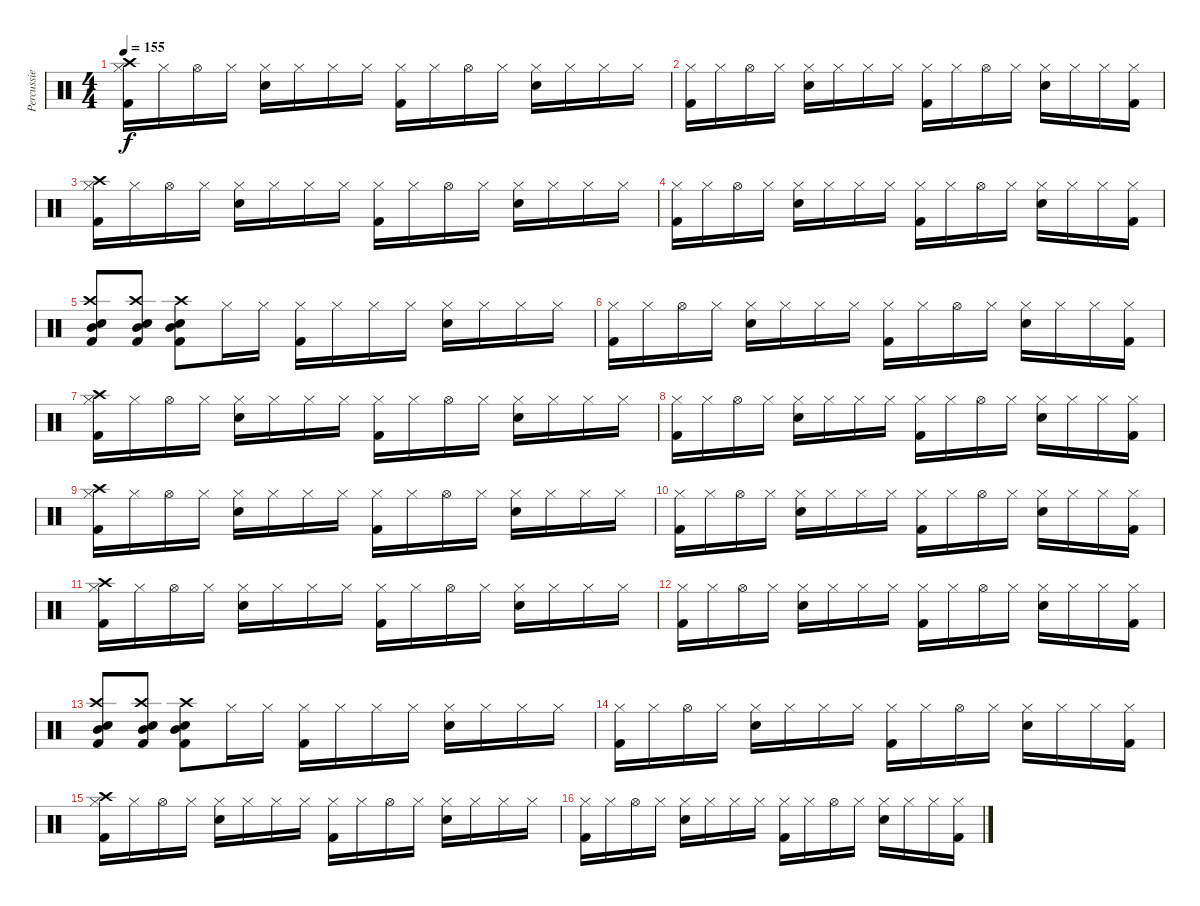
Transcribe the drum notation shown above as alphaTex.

\track ("Percussie" "Percussie") {instrument percussion}
\staff {score}
\articulation defaults
\ts (4 4)
\tempo 155
\clef neutral
\ks c
("Kick (hit) 2" "Hi-Hat (closed)" "Crash high (hit)").16{dy f} "Hi-Hat (closed)".16 "Hi-Hat (open)".16 "Hi-Hat (closed)".16 ("Electric Snare (hit)" "Hi-Hat (closed)").16 "Hi-Hat (closed)".16 "Hi-Hat (closed)".16 "Hi-Hat (closed)".16 ("Kick (hit) 2" "Hi-Hat (closed)").16 "Hi-Hat (closed)".16 "Hi-Hat (open)".16 "Hi-Hat (closed)".16 ("Electric Snare (hit)" "Hi-Hat (closed)").16 "Hi-Hat (closed)".16 "Hi-Hat (closed)".16 "Hi-Hat (closed)".16 |
("Kick (hit) 2" "Hi-Hat (closed)").16 "Hi-Hat (closed)".16 "Hi-Hat (open)".16 "Hi-Hat (closed)".16 ("Electric Snare (hit)" "Hi-Hat (closed)").16 "Hi-Hat (closed)".16 "Hi-Hat (closed)".16 "Hi-Hat (closed)".16 ("Kick (hit) 2" "Hi-Hat (closed)").16 "Hi-Hat (closed)".16 "Hi-Hat (open)".16 "Hi-Hat (closed)".16 ("Electric Snare (hit)" "Hi-Hat (closed)").16 "Hi-Hat (closed)".16 "Hi-Hat (closed)".16 ("Kick (hit) 2" "Hi-Hat (closed)").16 |
("Kick (hit) 2" "Hi-Hat (closed)" "Crash high (hit)").16 "Hi-Hat (closed)".16 "Hi-Hat (open)".16 "Hi-Hat (closed)".16 ("Electric Snare (hit)" "Hi-Hat (closed)").16 "Hi-Hat (closed)".16 "Hi-Hat (closed)".16 "Hi-Hat (closed)".16 ("Kick (hit) 2" "Hi-Hat (closed)").16 "Hi-Hat (closed)".16 "Hi-Hat (open)".16 "Hi-Hat (closed)".16 ("Electric Snare (hit)" "Hi-Hat (closed)").16 "Hi-Hat (closed)".16 "Hi-Hat (closed)".16 "Hi-Hat (closed)".16 |
("Kick (hit) 2" "Hi-Hat (closed)").16 "Hi-Hat (closed)".16 "Hi-Hat (open)".16 "Hi-Hat (closed)".16 ("Electric Snare (hit)" "Hi-Hat (closed)").16 "Hi-Hat (closed)".16 "Hi-Hat (closed)".16 "Hi-Hat (closed)".16 ("Kick (hit) 2" "Hi-Hat (closed)").16 "Hi-Hat (closed)".16 "Hi-Hat (open)".16 "Hi-Hat (closed)".16 ("Electric Snare (hit)" "Hi-Hat (closed)").16 "Hi-Hat (closed)".16 "Hi-Hat (closed)".16 ("Kick (hit) 2" "Hi-Hat (closed)").16 |
("Kick (hit) 2" "Electric Snare (hit)" "Mid Tom (hit)" "Crash high (hit)").8 ("Kick (hit) 2" "Electric Snare (hit)" "Mid Tom (hit)" "Crash high (hit)").8 ("Kick (hit) 2" "Electric Snare (hit)" "Mid Tom (hit)" "Crash high (hit)").8 "Hi-Hat (closed)".16 "Hi-Hat (closed)".16 ("Kick (hit) 2" "Hi-Hat (closed)").16 "Hi-Hat (closed)".16 "Hi-Hat (closed)".16 "Hi-Hat (closed)".16 ("Electric Snare (hit)" "Hi-Hat (closed)").16 "Hi-Hat (closed)".16 "Hi-Hat (closed)".16 "Hi-Hat (closed)".16 |
("Kick (hit) 2" "Hi-Hat (closed)").16 "Hi-Hat (closed)".16 "Hi-Hat (open)".16 "Hi-Hat (closed)".16 ("Electric Snare (hit)" "Hi-Hat (closed)").16 "Hi-Hat (closed)".16 "Hi-Hat (closed)".16 "Hi-Hat (closed)".16 ("Kick (hit) 2" "Hi-Hat (closed)").16 "Hi-Hat (closed)".16 "Hi-Hat (open)".16 "Hi-Hat (closed)".16 ("Electric Snare (hit)" "Hi-Hat (closed)").16 "Hi-Hat (closed)".16 "Hi-Hat (closed)".16 ("Kick (hit) 2" "Hi-Hat (closed)").16 |
("Kick (hit) 2" "Hi-Hat (closed)" "Crash high (hit)").16 "Hi-Hat (closed)".16 "Hi-Hat (open)".16 "Hi-Hat (closed)".16 ("Electric Snare (hit)" "Hi-Hat (closed)").16 "Hi-Hat (closed)".16 "Hi-Hat (closed)".16 "Hi-Hat (closed)".16 ("Kick (hit) 2" "Hi-Hat (closed)").16 "Hi-Hat (closed)".16 "Hi-Hat (open)".16 "Hi-Hat (closed)".16 ("Electric Snare (hit)" "Hi-Hat (closed)").16 "Hi-Hat (closed)".16 "Hi-Hat (closed)".16 "Hi-Hat (closed)".16 |
("Kick (hit) 2" "Hi-Hat (closed)").16 "Hi-Hat (closed)".16 "Hi-Hat (open)".16 "Hi-Hat (closed)".16 ("Electric Snare (hit)" "Hi-Hat (closed)").16 "Hi-Hat (closed)".16 "Hi-Hat (closed)".16 "Hi-Hat (closed)".16 ("Kick (hit) 2" "Hi-Hat (closed)").16 "Hi-Hat (closed)".16 "Hi-Hat (open)".16 "Hi-Hat (closed)".16 ("Electric Snare (hit)" "Hi-Hat (closed)").16 "Hi-Hat (closed)".16 "Hi-Hat (closed)".16 ("Kick (hit) 2" "Hi-Hat (closed)").16 |
("Kick (hit) 2" "Hi-Hat (closed)" "Crash high (hit)").16 "Hi-Hat (closed)".16 "Hi-Hat (open)".16 "Hi-Hat (closed)".16 ("Electric Snare (hit)" "Hi-Hat (closed)").16 "Hi-Hat (closed)".16 "Hi-Hat (closed)".16 "Hi-Hat (closed)".16 ("Kick (hit) 2" "Hi-Hat (closed)").16 "Hi-Hat (closed)".16 "Hi-Hat (open)".16 "Hi-Hat (closed)".16 ("Electric Snare (hit)" "Hi-Hat (closed)").16 "Hi-Hat (closed)".16 "Hi-Hat (closed)".16 "Hi-Hat (closed)".16 |
("Kick (hit) 2" "Hi-Hat (closed)").16 "Hi-Hat (closed)".16 "Hi-Hat (open)".16 "Hi-Hat (closed)".16 ("Electric Snare (hit)" "Hi-Hat (closed)").16 "Hi-Hat (closed)".16 "Hi-Hat (closed)".16 "Hi-Hat (closed)".16 ("Kick (hit) 2" "Hi-Hat (closed)").16 "Hi-Hat (closed)".16 "Hi-Hat (open)".16 "Hi-Hat (closed)".16 ("Electric Snare (hit)" "Hi-Hat (closed)").16 "Hi-Hat (closed)".16 "Hi-Hat (closed)".16 ("Kick (hit) 2" "Hi-Hat (closed)").16 |
("Kick (hit) 2" "Hi-Hat (closed)" "Crash high (hit)").16 "Hi-Hat (closed)".16 "Hi-Hat (open)".16 "Hi-Hat (closed)".16 ("Electric Snare (hit)" "Hi-Hat (closed)").16 "Hi-Hat (closed)".16 "Hi-Hat (closed)".16 "Hi-Hat (closed)".16 ("Kick (hit) 2" "Hi-Hat (closed)").16 "Hi-Hat (closed)".16 "Hi-Hat (open)".16 "Hi-Hat (closed)".16 ("Electric Snare (hit)" "Hi-Hat (closed)").16 "Hi-Hat (closed)".16 "Hi-Hat (closed)".16 "Hi-Hat (closed)".16 |
("Kick (hit) 2" "Hi-Hat (closed)").16 "Hi-Hat (closed)".16 "Hi-Hat (open)".16 "Hi-Hat (closed)".16 ("Electric Snare (hit)" "Hi-Hat (closed)").16 "Hi-Hat (closed)".16 "Hi-Hat (closed)".16 "Hi-Hat (closed)".16 ("Kick (hit) 2" "Hi-Hat (closed)").16 "Hi-Hat (closed)".16 "Hi-Hat (open)".16 "Hi-Hat (closed)".16 ("Electric Snare (hit)" "Hi-Hat (closed)").16 "Hi-Hat (closed)".16 "Hi-Hat (closed)".16 ("Kick (hit) 2" "Hi-Hat (closed)").16 |
("Kick (hit) 2" "Electric Snare (hit)" "Mid Tom (hit)" "Crash high (hit)").8 ("Kick (hit) 2" "Electric Snare (hit)" "Mid Tom (hit)" "Crash high (hit)").8 ("Kick (hit) 2" "Electric Snare (hit)" "Mid Tom (hit)" "Crash high (hit)").8 "Hi-Hat (closed)".16 "Hi-Hat (closed)".16 ("Kick (hit) 2" "Hi-Hat (closed)").16 "Hi-Hat (closed)".16 "Hi-Hat (closed)".16 "Hi-Hat (closed)".16 ("Electric Snare (hit)" "Hi-Hat (closed)").16 "Hi-Hat (closed)".16 "Hi-Hat (closed)".16 "Hi-Hat (closed)".16 |
("Kick (hit) 2" "Hi-Hat (closed)").16 "Hi-Hat (closed)".16 "Hi-Hat (open)".16 "Hi-Hat (closed)".16 ("Electric Snare (hit)" "Hi-Hat (closed)").16 "Hi-Hat (closed)".16 "Hi-Hat (closed)".16 "Hi-Hat (closed)".16 ("Kick (hit) 2" "Hi-Hat (closed)").16 "Hi-Hat (closed)".16 "Hi-Hat (open)".16 "Hi-Hat (closed)".16 ("Electric Snare (hit)" "Hi-Hat (closed)").16 "Hi-Hat (closed)".16 "Hi-Hat (closed)".16 ("Kick (hit) 2" "Hi-Hat (closed)").16 |
("Kick (hit) 2" "Hi-Hat (closed)" "Crash high (hit)").16 "Hi-Hat (closed)".16 "Hi-Hat (open)".16 "Hi-Hat (closed)".16 ("Electric Snare (hit)" "Hi-Hat (closed)").16 "Hi-Hat (closed)".16 "Hi-Hat (closed)".16 "Hi-Hat (closed)".16 ("Kick (hit) 2" "Hi-Hat (closed)").16 "Hi-Hat (closed)".16 "Hi-Hat (open)".16 "Hi-Hat (closed)".16 ("Electric Snare (hit)" "Hi-Hat (closed)").16 "Hi-Hat (closed)".16 "Hi-Hat (closed)".16 "Hi-Hat (closed)".16 |
("Kick (hit) 2" "Hi-Hat (closed)").16 "Hi-Hat (closed)".16 "Hi-Hat (open)".16 "Hi-Hat (closed)".16 ("Electric Snare (hit)" "Hi-Hat (closed)").16 "Hi-Hat (closed)".16 "Hi-Hat (closed)".16 "Hi-Hat (closed)".16 ("Kick (hit) 2" "Hi-Hat (closed)").16 "Hi-Hat (closed)".16 "Hi-Hat (open)".16 "Hi-Hat (closed)".16 ("Electric Snare (hit)" "Hi-Hat (closed)").16 "Hi-Hat (closed)".16 "Hi-Hat (closed)".16 ("Kick (hit) 2" "Hi-Hat (closed)").16
